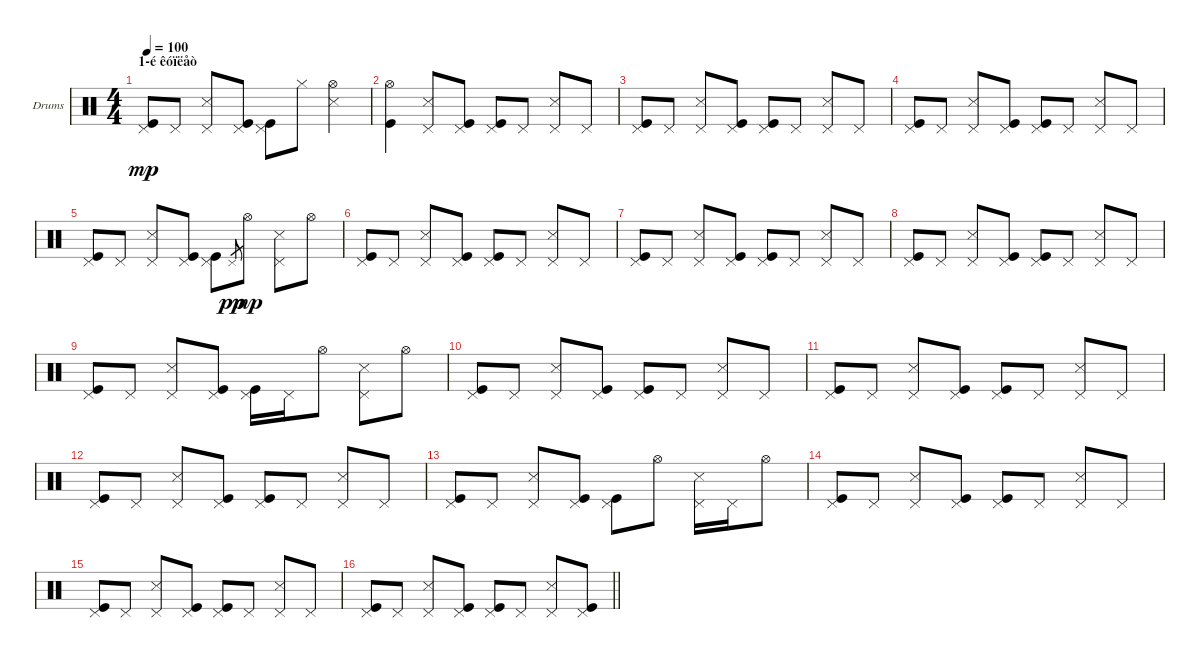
\bracketExtendMode groupsimilarinstruments
\firstSystemTrackNameOrientation horizontal
\otherSystemsTrackNameOrientation horizontal
\track ("Drumkit" "Drums") {instrument percussion}
\staff {score}
\articulation defaults
\ts (4 4)
\section ("" "1-é êóïëåò")
\tempo 100
\clef neutral
\scale
0.333333
\ks c
("Pedal Hi-Hat (hit)" "Kick (hit)").8{dy mp} "Pedal Hi-Hat (hit)".8 ("Pedal Hi-Hat (hit)" "Snare (side stick) 3").8 ("Pedal Hi-Hat (hit)" "Kick (hit)").8 ("Pedal Hi-Hat (hit)" "Kick (hit)").8 "Hi-Hat (closed)".8 ("Hi-Hat (open)" "Snare (side stick) 3").4 |
\scale
0.333333 ("Hi-Hat (open)" "Kick (hit)").4 ("Pedal Hi-Hat (hit)" "Snare (side stick) 3").8 ("Pedal Hi-Hat (hit)" "Kick (hit)").8 ("Pedal Hi-Hat (hit)" "Kick (hit)").8 "Pedal Hi-Hat (hit)".8 ("Pedal Hi-Hat (hit)" "Snare (side stick) 3").8 "Pedal Hi-Hat (hit)".8 |
\scale
0.333333 ("Pedal Hi-Hat (hit)" "Kick (hit)").8 "Pedal Hi-Hat (hit)".8 ("Pedal Hi-Hat (hit)" "Snare (side stick) 3").8 ("Pedal Hi-Hat (hit)" "Kick (hit)").8 ("Pedal Hi-Hat (hit)" "Kick (hit)").8 "Pedal Hi-Hat (hit)".8 ("Pedal Hi-Hat (hit)" "Snare (side stick) 3").8 "Pedal Hi-Hat (hit)".8 |
\scale
0.333333 ("Pedal Hi-Hat (hit)" "Kick (hit)").8 "Pedal Hi-Hat (hit)".8 ("Pedal Hi-Hat (hit)" "Snare (side stick) 3").8 ("Pedal Hi-Hat (hit)" "Kick (hit)").8 ("Pedal Hi-Hat (hit)" "Kick (hit)").8 "Pedal Hi-Hat (hit)".8 ("Pedal Hi-Hat (hit)" "Snare (side stick) 3").8 "Pedal Hi-Hat (hit)".8 |
\scale
0.333333 ("Pedal Hi-Hat (hit)" "Kick (hit)").8 "Pedal Hi-Hat (hit)".8 ("Pedal Hi-Hat (hit)" "Snare (side stick) 3").8 ("Pedal Hi-Hat (hit)" "Kick (hit)").8 ("Pedal Hi-Hat (hit)" "Kick (hit)").8 "Pedal Hi-Hat (hit)".8{gr dy pp} "Hi-Hat (open)".8{dy mp} ("Pedal Hi-Hat (hit)" "Snare (side stick) 3").8 "Hi-Hat (open)".8 |
\scale
0.333333 ("Pedal Hi-Hat (hit)" "Kick (hit)").8 "Pedal Hi-Hat (hit)".8 ("Pedal Hi-Hat (hit)" "Snare (side stick) 3").8 ("Pedal Hi-Hat (hit)" "Kick (hit)").8 ("Pedal Hi-Hat (hit)" "Kick (hit)").8 "Pedal Hi-Hat (hit)".8 ("Pedal Hi-Hat (hit)" "Snare (side stick) 3").8 "Pedal Hi-Hat (hit)".8 |
\scale
0.333333 ("Pedal Hi-Hat (hit)" "Kick (hit)").8 "Pedal Hi-Hat (hit)".8 ("Pedal Hi-Hat (hit)" "Snare (side stick) 3").8 ("Pedal Hi-Hat (hit)" "Kick (hit)").8 ("Pedal Hi-Hat (hit)" "Kick (hit)").8 "Pedal Hi-Hat (hit)".8 ("Pedal Hi-Hat (hit)" "Snare (side stick) 3").8 "Pedal Hi-Hat (hit)".8 |
\scale
0.333333 ("Pedal Hi-Hat (hit)" "Kick (hit)").8 "Pedal Hi-Hat (hit)".8 ("Pedal Hi-Hat (hit)" "Snare (side stick) 3").8 ("Pedal Hi-Hat (hit)" "Kick (hit)").8 ("Pedal Hi-Hat (hit)" "Kick (hit)").8 "Pedal Hi-Hat (hit)".8 ("Pedal Hi-Hat (hit)" "Snare (side stick) 3").8 "Pedal Hi-Hat (hit)".8 |
\scale
0.333333 ("Pedal Hi-Hat (hit)" "Kick (hit)").8 "Pedal Hi-Hat (hit)".8 ("Pedal Hi-Hat (hit)" "Snare (side stick) 3").8 ("Pedal Hi-Hat (hit)" "Kick (hit)").8 ("Pedal Hi-Hat (hit)" "Kick (hit)").16 "Pedal Hi-Hat (hit)".16 "Hi-Hat (open)".8 ("Pedal Hi-Hat (hit)" "Snare (side stick) 3").8 "Hi-Hat (open)".8 |
\scale
0.333333 ("Pedal Hi-Hat (hit)" "Kick (hit)").8 "Pedal Hi-Hat (hit)".8 ("Pedal Hi-Hat (hit)" "Snare (side stick) 3").8 ("Pedal Hi-Hat (hit)" "Kick (hit)").8 ("Pedal Hi-Hat (hit)" "Kick (hit)").8 "Pedal Hi-Hat (hit)".8 ("Pedal Hi-Hat (hit)" "Snare (side stick) 3").8 "Pedal Hi-Hat (hit)".8 |
\scale
0.333333 ("Pedal Hi-Hat (hit)" "Kick (hit)").8 "Pedal Hi-Hat (hit)".8 ("Pedal Hi-Hat (hit)" "Snare (side stick) 3").8 ("Pedal Hi-Hat (hit)" "Kick (hit)").8 ("Pedal Hi-Hat (hit)" "Kick (hit)").8 "Pedal Hi-Hat (hit)".8 ("Pedal Hi-Hat (hit)" "Snare (side stick) 3").8 "Pedal Hi-Hat (hit)".8 |
\scale
0.333333 ("Pedal Hi-Hat (hit)" "Kick (hit)").8 "Pedal Hi-Hat (hit)".8 ("Pedal Hi-Hat (hit)" "Snare (side stick) 3").8 ("Pedal Hi-Hat (hit)" "Kick (hit)").8 ("Pedal Hi-Hat (hit)" "Kick (hit)").8 "Pedal Hi-Hat (hit)".8 ("Pedal Hi-Hat (hit)" "Snare (side stick) 3").8 "Pedal Hi-Hat (hit)".8 |
\scale
0.333333 ("Pedal Hi-Hat (hit)" "Kick (hit)").8 "Pedal Hi-Hat (hit)".8 ("Pedal Hi-Hat (hit)" "Snare (side stick) 3").8 ("Pedal Hi-Hat (hit)" "Kick (hit)").8 ("Pedal Hi-Hat (hit)" "Kick (hit)").8 "Hi-Hat (open)".8 ("Pedal Hi-Hat (hit)" "Snare (side stick) 3").16 "Pedal Hi-Hat (hit)".16 "Hi-Hat (open)".8 |
\scale
0.333333 ("Pedal Hi-Hat (hit)" "Kick (hit)").8 "Pedal Hi-Hat (hit)".8 ("Pedal Hi-Hat (hit)" "Snare (side stick) 3").8 ("Pedal Hi-Hat (hit)" "Kick (hit)").8 ("Pedal Hi-Hat (hit)" "Kick (hit)").8 "Pedal Hi-Hat (hit)".8 ("Pedal Hi-Hat (hit)" "Snare (side stick) 3").8 "Pedal Hi-Hat (hit)".8 |
\scale
0.333333 ("Pedal Hi-Hat (hit)" "Kick (hit)").8 "Pedal Hi-Hat (hit)".8 ("Pedal Hi-Hat (hit)" "Snare (side stick) 3").8 ("Pedal Hi-Hat (hit)" "Kick (hit)").8 ("Pedal Hi-Hat (hit)" "Kick (hit)").8 "Pedal Hi-Hat (hit)".8 ("Pedal Hi-Hat (hit)" "Snare (side stick) 3").8 "Pedal Hi-Hat (hit)".8 |
\scale
0.333333
\barLineRight lightlight
("Pedal Hi-Hat (hit)" "Kick (hit)").8 "Pedal Hi-Hat (hit)".8 ("Pedal Hi-Hat (hit)" "Snare (side stick) 3").8 ("Pedal Hi-Hat (hit)" "Kick (hit)").8 ("Pedal Hi-Hat (hit)" "Kick (hit)").8 "Pedal Hi-Hat (hit)".8 ("Pedal Hi-Hat (hit)" "Snare (side stick) 3").8 ("Pedal Hi-Hat (hit)" "Kick (hit)").8
